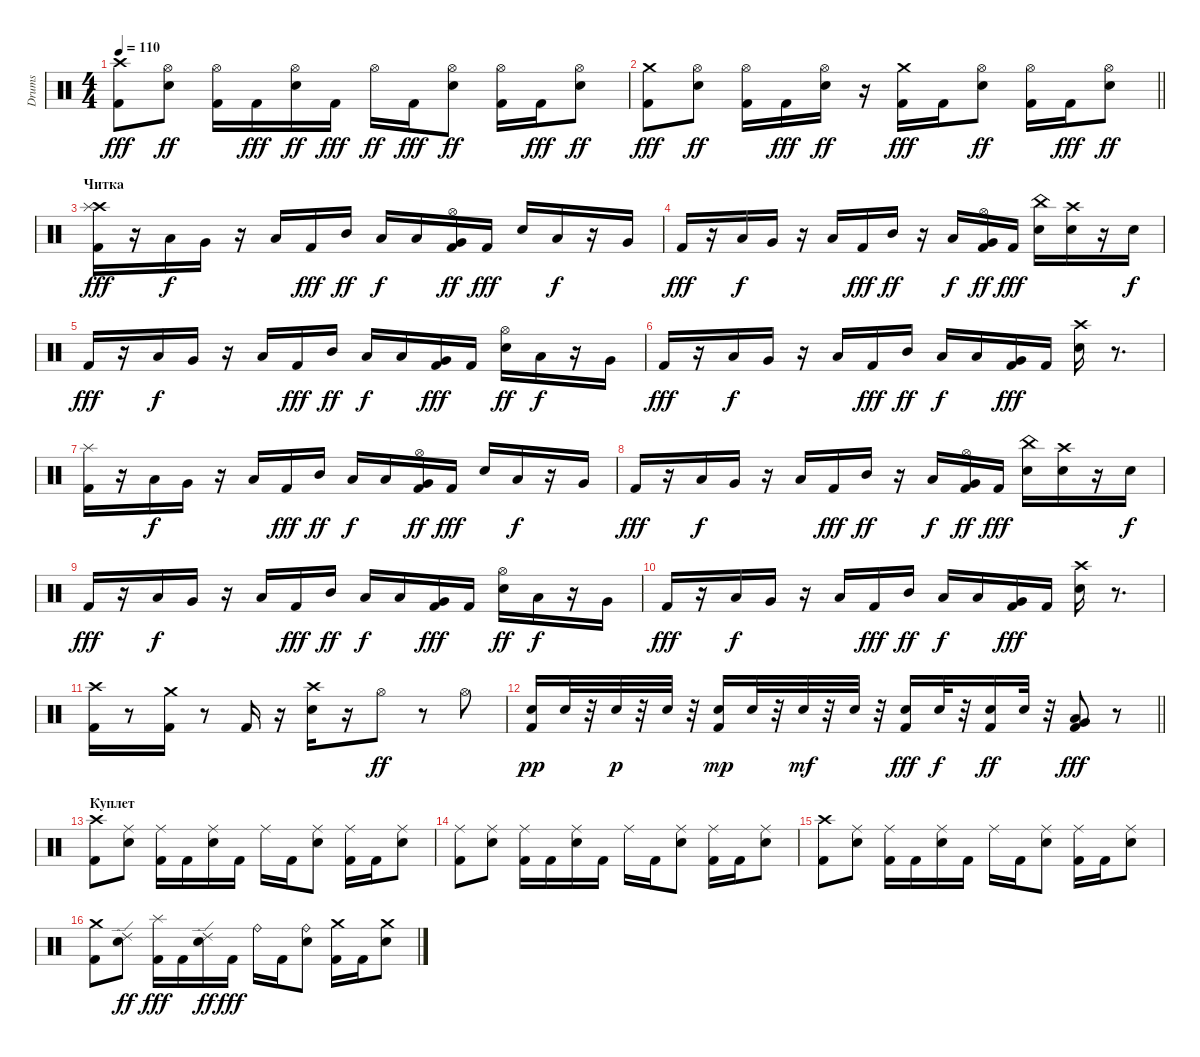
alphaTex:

\track ("Drums" "Drums") {instrument percussion}
\staff {score}
\articulation defaults
\ts (4 4)
\tempo 110
\clef neutral
\ks c
("Kick (hit) 2" "Crash high (hit)").8{dy fff} ("Electric Snare (hit)" "Hi-Hat (open)").8{dy ff} ("Kick (hit) 2" "Hi-Hat (open)").16 "Kick (hit) 2".16{dy fff} ("Electric Snare (hit)" "Hi-Hat (open)").16{dy ff} "Kick (hit) 2".16{dy fff} "Hi-Hat (open)".16{dy ff} "Kick (hit) 2".16{dy fff} ("Electric Snare (hit)" "Hi-Hat (open)").8{dy ff} ("Kick (hit) 2" "Hi-Hat (open)").16 "Kick (hit) 2".16{dy fff} ("Electric Snare (hit)" "Hi-Hat (open)").8{dy ff} |
\barLineRight lightlight
("Kick (hit) 2" "Crash medium (hit)").8{dy fff} ("Electric Snare (hit)" "Hi-Hat (open)").8{dy ff} ("Kick (hit) 2" "Hi-Hat (open)").16 "Kick (hit) 2".16{dy fff} ("Electric Snare (hit)" "Hi-Hat (open)").16{dy ff} r.16 ("Kick (hit) 2" "Crash medium (hit)").16{dy fff} "Kick (hit) 2".16 ("Electric Snare (hit)" "Hi-Hat (open)").8{dy ff} ("Kick (hit) 2" "Hi-Hat (open)").16 "Kick (hit) 2".16{dy fff} ("Electric Snare (hit)" "Hi-Hat (open)").8{dy ff} |
\section ("" "Читка")
("Kick (hit) 2" "Crash high (hit)" "Splash (hit)").16{dy fff} r.16 "Low Tom (hit)".16{dy f} "Very Low Tom (hit)".16 r.16 "Low Floor Tom (hit)".16 "Kick (hit) 2".16{dy fff} "Mid Tom (hit)".16{dy ff} "Low Tom (hit)".16{dy f} "Low Tom (hit)".16 ("Kick (hit) 2" "Very Low Tom (hit)" "Hi-Hat (open)").16{dy ff} "Kick (hit) 2".16{dy fff} "Electric Snare (hit)".16 "Low Tom (hit)".16{dy f} r.16 "Very Low Tom (hit)".16 |
"Kick (hit) 2".16{dy fff} r.16 "Low Tom (hit)".16{dy f} "Very Low Tom (hit)".16 r.16 "Low Floor Tom (hit)".16 "Kick (hit) 2".16{dy fff} "Mid Tom (hit)".16{dy ff} r.16 "Low Tom (hit)".16{dy f} ("Kick (hit) 2" "Very Low Tom (hit)" "Hi-Hat (open)").16{dy ff} "Kick (hit) 2".16{dy fff} ("Electric Snare (hit)" "China (hit)").16 ("Snare (hit) 2" "Crash high (hit)").16 r.16 "Electric Snare (hit)".16{dy f} |
"Kick (hit) 2".16{dy fff} r.16 "Low Tom (hit)".16{dy f} "Very Low Tom (hit)".16 r.16 "Low Floor Tom (hit)".16 "Kick (hit) 2".16{dy fff} "Mid Tom (hit)".16{dy ff} "Low Tom (hit)".16{dy f} "Low Tom (hit)".16 ("Kick (hit) 2" "Very Low Tom (hit)").16{dy fff} "Kick (hit) 2".16 ("Electric Snare (hit)" "Hi-Hat (open)").16{dy ff} "Low Tom (hit)".16{dy f} r.16 "Very Low Tom (hit)".16 |
"Kick (hit) 2".16{dy fff} r.16 "Low Tom (hit)".16{dy f} "Very Low Tom (hit)".16 r.16 "Low Floor Tom (hit)".16 "Kick (hit) 2".16{dy fff} "Mid Tom (hit)".16{dy ff} "Low Tom (hit)".16{dy f} "Low Tom (hit)".16 ("Kick (hit) 2" "Very Low Tom (hit)").16{dy fff} "Kick (hit) 2".16 ("Electric Snare (hit)" "Crash high (hit)").16 r.8{d} |
("Kick (hit) 2" "Splash (hit)").16 r.16 "Low Tom (hit)".16{dy f} "Very Low Tom (hit)".16 r.16 "Low Floor Tom (hit)".16 "Kick (hit) 2".16{dy fff} "Mid Tom (hit)".16{dy ff} "Low Tom (hit)".16{dy f} "Low Tom (hit)".16 ("Kick (hit) 2" "Very Low Tom (hit)" "Hi-Hat (open)").16{dy ff} "Kick (hit) 2".16{dy fff} "Electric Snare (hit)".16 "Low Tom (hit)".16{dy f} r.16 "Very Low Tom (hit)".16 |
"Kick (hit) 2".16{dy fff} r.16 "Low Tom (hit)".16{dy f} "Very Low Tom (hit)".16 r.16 "Low Floor Tom (hit)".16 "Kick (hit) 2".16{dy fff} "Mid Tom (hit)".16{dy ff} r.16 "Low Tom (hit)".16{dy f} ("Kick (hit) 2" "Very Low Tom (hit)" "Hi-Hat (open)").16{dy ff} "Kick (hit) 2".16{dy fff} ("Electric Snare (hit)" "China (hit)").16 ("Electric Snare (hit)" "Crash high (hit)").16 r.16 "Electric Snare (hit)".16{dy f} |
"Kick (hit) 2".16{dy fff} r.16 "Low Tom (hit)".16{dy f} "Very Low Tom (hit)".16 r.16 "Low Floor Tom (hit)".16 "Kick (hit) 2".16{dy fff} "Mid Tom (hit)".16{dy ff} "Low Tom (hit)".16{dy f} "Low Tom (hit)".16 ("Kick (hit) 2" "Very Low Tom (hit)").16{dy fff} "Kick (hit) 2".16 ("Electric Snare (hit)" "Hi-Hat (open)").16{dy ff} "Low Tom (hit)".16{dy f} r.16 "Very Low Tom (hit)".16 |
"Kick (hit) 2".16{dy fff} r.16 "Low Tom (hit)".16{dy f} "Very Low Tom (hit)".16 r.16 "Low Floor Tom (hit)".16 "Kick (hit) 2".16{dy fff} "Mid Tom (hit)".16{dy ff} "Low Tom (hit)".16{dy f} "Low Tom (hit)".16 ("Kick (hit) 2" "Very Low Tom (hit)").16{dy fff} "Kick (hit) 2".16 ("Electric Snare (hit)" "Crash high (hit)").16 r.8{d} |
("Kick (hit) 2" "Crash high (hit)").16 r.8 ("Kick (hit) 2" "Crash medium (hit)").16 r.8 "Kick (hit) 2".16 r.16 ("Electric Snare (hit)" "Crash high (hit)").16 r.16 "Hi-Hat (open)".8{dy ff} r.8 "Hi-Hat (open)".8 |
\barLineRight lightlight
("Kick (hit) 2" "Electric Snare (hit)").16{dy pp} "Electric Snare (hit)".32 r.32 "Electric Snare (hit)".32{dy p} r.32 "Electric Snare (hit)".32 r.32 ("Kick (hit) 2" "Electric Snare (hit)").16{dy mp} "Electric Snare (hit)".32 r.32 "Electric Snare (hit)".32{dy mf} r.32 "Electric Snare (hit)".32 r.32 ("Kick (hit) 2" "Electric Snare (hit)").16{dy fff} "Electric Snare (hit)".32{dy f} r.32 ("Kick (hit) 2" "Electric Snare (hit)").16{dy ff} "Electric Snare (hit)".32 r.32 ("Very Low Tom (hit)" "Kick (hit) 2" "Low Floor Tom (hit)").8{dy fff} r.8 |
\section ("" "Куплет")
("Kick (hit) 2" "Crash high (hit)").8 ("Electric Snare (hit)" "Ride (middle)").8 ("Kick (hit) 2" "Ride (middle)").16 "Kick (hit) 2".16 ("Electric Snare (hit)" "Ride (middle)").16 "Kick (hit) 2".16 "Ride (middle)".16 "Kick (hit) 2".16 ("Electric Snare (hit)" "Ride (middle)").8 ("Kick (hit) 2" "Ride (middle)").16 "Kick (hit) 2".16 ("Electric Snare (hit)" "Ride (middle)").8 |
("Kick (hit) 2" "Ride (middle)").8 ("Electric Snare (hit)" "Ride (middle)").8 ("Kick (hit) 2" "Ride (middle)").16 "Kick (hit) 2".16 ("Electric Snare (hit)" "Ride (middle)").16 "Kick (hit) 2".16 "Ride (middle)".16 "Kick (hit) 2".16 ("Electric Snare (hit)" "Ride (middle)").8 ("Kick (hit) 2" "Ride (middle)").16 "Kick (hit) 2".16 ("Electric Snare (hit)" "Ride (middle)").8 |
("Kick (hit) 2" "Crash high (hit)").8 ("Electric Snare (hit)" "Ride (middle)").8 ("Kick (hit) 2" "Ride (middle)").16 "Kick (hit) 2".16 ("Electric Snare (hit)" "Ride (middle)").16 "Kick (hit) 2".16 "Ride (middle)".16 "Kick (hit) 2".16 ("Electric Snare (hit)" "Ride (middle)").8 ("Kick (hit) 2" "Ride (middle)").16 "Kick (hit) 2".16 ("Electric Snare (hit)" "Ride (middle)").8 |
("Kick (hit) 2" "Crash medium (hit)").8 ("Electric Snare (hit)" "Ride (edge) 2").8{dy ff} ("Kick (hit) 2" "Splash (hit)").16{dy fff} "Kick (hit) 2".16 ("Electric Snare (hit)" "Ride (edge) 2").16{dy ff} "Kick (hit) 2".16{dy fff} "Ride (bell)".16 "Kick (hit) 2".16 ("Electric Snare (hit)" "Ride (bell)").8 ("Kick (hit) 2" "Crash medium (hit)").16 "Kick (hit) 2".16 ("Electric Snare (hit)" "Crash medium (hit)").8
